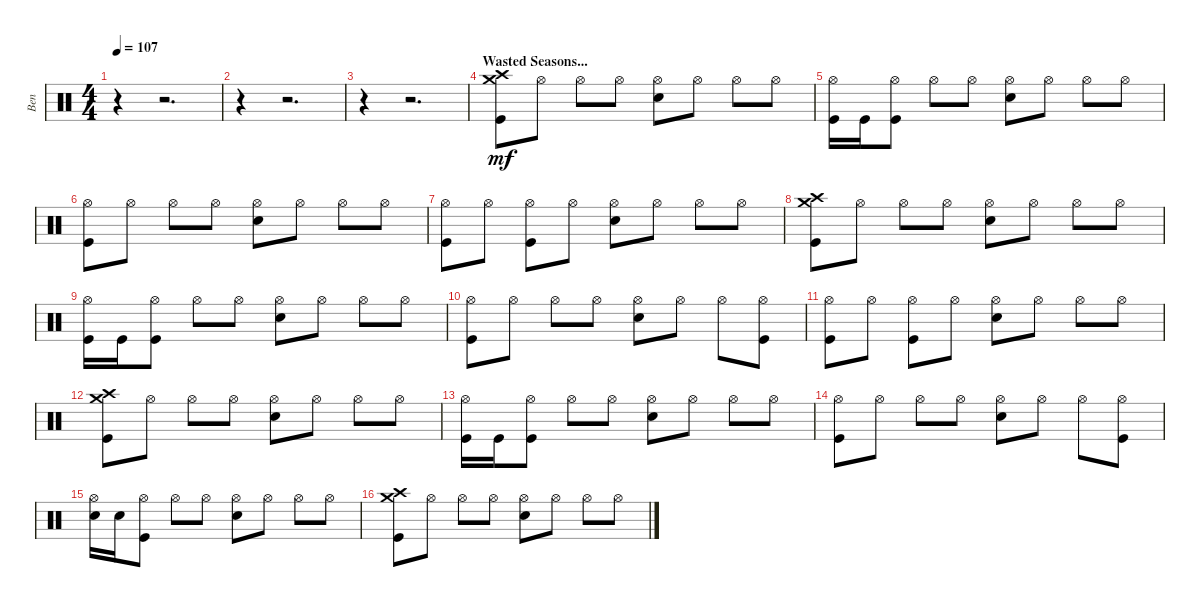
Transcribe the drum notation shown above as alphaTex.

\track ("Ben" "Ben") {instrument percussion}
\staff {score}
\articulation defaults
\ts (4 4)
\tempo 107
\clef neutral
\ks c
r.4{dy mf} r.2{d} |
r.4 r.2{d} |
r.4 r.2{d} |
\section ("" "Wasted Seasons...")
("Kick (hit)" "Crash medium (hit)" "Crash high (hit)").8 "Hi-Hat (open)".8 "Hi-Hat (open)".8 "Hi-Hat (open)".8 ("Hi-Hat (open)" "Snare (hit) 2").8 "Hi-Hat (open)".8 "Hi-Hat (open)".8 "Hi-Hat (open)".8 |
("Kick (hit)" "Hi-Hat (open)").16 "Kick (hit)".16 ("Kick (hit)" "Hi-Hat (open)").8 "Hi-Hat (open)".8 "Hi-Hat (open)".8 ("Hi-Hat (open)" "Snare (hit) 2").8 "Hi-Hat (open)".8 "Hi-Hat (open)".8 "Hi-Hat (open)".8 |
("Kick (hit)" "Hi-Hat (open)").8 "Hi-Hat (open)".8 "Hi-Hat (open)".8 "Hi-Hat (open)".8 ("Hi-Hat (open)" "Snare (hit) 2").8 "Hi-Hat (open)".8 "Hi-Hat (open)".8 "Hi-Hat (open)".8 |
("Kick (hit)" "Hi-Hat (open)").8 "Hi-Hat (open)".8 ("Hi-Hat (open)" "Kick (hit)").8 "Hi-Hat (open)".8 ("Hi-Hat (open)" "Snare (hit) 2").8 "Hi-Hat (open)".8 "Hi-Hat (open)".8 "Hi-Hat (open)".8 |
("Kick (hit)" "Crash medium (hit)" "Crash high (hit)").8 "Hi-Hat (open)".8 "Hi-Hat (open)".8 "Hi-Hat (open)".8 ("Hi-Hat (open)" "Snare (hit) 2").8 "Hi-Hat (open)".8 "Hi-Hat (open)".8 "Hi-Hat (open)".8 |
("Kick (hit)" "Hi-Hat (open)").16 "Kick (hit)".16 ("Kick (hit)" "Hi-Hat (open)").8 "Hi-Hat (open)".8 "Hi-Hat (open)".8 ("Hi-Hat (open)" "Snare (hit) 2").8 "Hi-Hat (open)".8 "Hi-Hat (open)".8 "Hi-Hat (open)".8 |
("Kick (hit)" "Hi-Hat (open)").8 "Hi-Hat (open)".8 "Hi-Hat (open)".8 "Hi-Hat (open)".8 ("Hi-Hat (open)" "Snare (hit) 2").8 "Hi-Hat (open)".8 "Hi-Hat (open)".8 ("Hi-Hat (open)" "Kick (hit)").8 |
("Kick (hit)" "Hi-Hat (open)").8 "Hi-Hat (open)".8 ("Hi-Hat (open)" "Kick (hit)").8 "Hi-Hat (open)".8 ("Hi-Hat (open)" "Snare (hit) 2").8 "Hi-Hat (open)".8 "Hi-Hat (open)".8 "Hi-Hat (open)".8 |
("Kick (hit)" "Crash medium (hit)" "Crash high (hit)").8 "Hi-Hat (open)".8 "Hi-Hat (open)".8 "Hi-Hat (open)".8 ("Hi-Hat (open)" "Snare (hit) 2").8 "Hi-Hat (open)".8 "Hi-Hat (open)".8 "Hi-Hat (open)".8 |
("Kick (hit)" "Hi-Hat (open)").16 "Kick (hit)".16 ("Kick (hit)" "Hi-Hat (open)").8 "Hi-Hat (open)".8 "Hi-Hat (open)".8 ("Hi-Hat (open)" "Snare (hit) 2").8 "Hi-Hat (open)".8 "Hi-Hat (open)".8 "Hi-Hat (open)".8 |
("Kick (hit)" "Hi-Hat (open)").8 "Hi-Hat (open)".8 "Hi-Hat (open)".8 "Hi-Hat (open)".8 ("Hi-Hat (open)" "Snare (hit) 2").8 "Hi-Hat (open)".8 "Hi-Hat (open)".8 ("Hi-Hat (open)" "Kick (hit)").8 |
("Hi-Hat (open)" "Snare (hit) 2").16 "Snare (hit) 2".16 ("Hi-Hat (open)" "Kick (hit)").8 "Hi-Hat (open)".8 "Hi-Hat (open)".8 ("Hi-Hat (open)" "Snare (hit) 2").8 "Hi-Hat (open)".8 "Hi-Hat (open)".8 "Hi-Hat (open)".8 |
("Kick (hit)" "Crash medium (hit)" "Crash high (hit)").8 "Hi-Hat (open)".8 "Hi-Hat (open)".8 "Hi-Hat (open)".8 ("Hi-Hat (open)" "Snare (hit) 2").8 "Hi-Hat (open)".8 "Hi-Hat (open)".8 "Hi-Hat (open)".8
